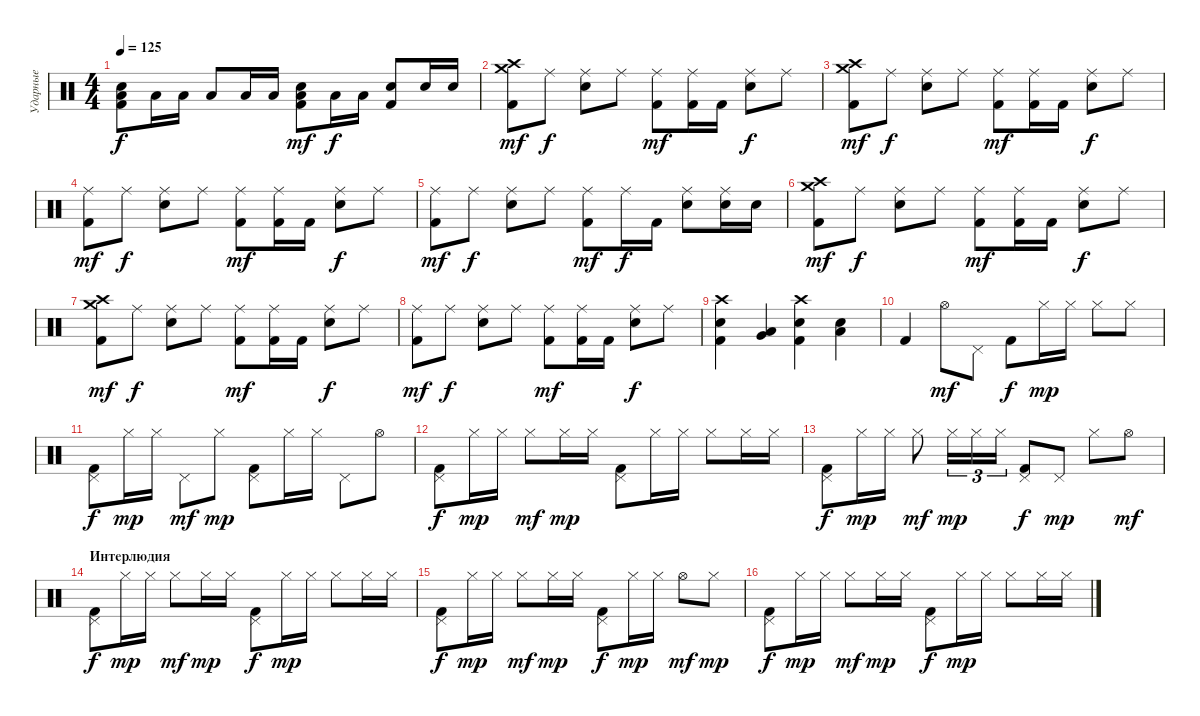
\track ("Ударные" "Ударные") {instrument percussion}
\staff {score}
\articulation defaults
\ts (4 4)
\tempo 125
\clef neutral
\ks c
("Snare (hit) 2" "Kick (hit) 2" "Low Floor Tom (hit)").8{dy f} "Low Floor Tom (hit)".16 "Low Floor Tom (hit)".16 "Low Floor Tom (hit)".8 "Low Floor Tom (hit)".16 "Low Floor Tom (hit)".16 ("Snare (hit) 2" "Kick (hit) 2" "Low Floor Tom (hit)").8{dy mf} "Low Floor Tom (hit)".16{dy f} "Low Floor Tom (hit)".16 ("Snare (hit) 2" "Kick (hit) 2").8 "Snare (hit) 2".16 "Snare (hit) 2".16 |
("Crash high (hit)" "Crash medium (hit)" "Kick (hit) 2").8{dy mf} "Ride (middle)".8{dy f} ("Ride (middle)" "Snare (hit) 2").8 "Ride (middle)".8 ("Ride (middle)" "Kick (hit) 2").8{dy mf} ("Ride (middle)" "Kick (hit) 2").16 "Kick (hit) 2".16 ("Ride (middle)" "Snare (hit) 2").8{dy f} "Ride (middle)".8 |
("Crash high (hit)" "Crash medium (hit)" "Kick (hit) 2").8{dy mf} "Ride (middle)".8{dy f} ("Ride (middle)" "Snare (hit) 2").8 "Ride (middle)".8 ("Ride (middle)" "Kick (hit) 2").8{dy mf} ("Ride (middle)" "Kick (hit) 2").16 "Kick (hit) 2".16 ("Ride (middle)" "Snare (hit) 2").8{dy f} "Ride (middle)".8 |
("Ride (middle)" "Kick (hit) 2").8{dy mf} "Ride (middle)".8{dy f} ("Ride (middle)" "Snare (hit) 2").8 "Ride (middle)".8 ("Ride (middle)" "Kick (hit) 2").8{dy mf} ("Ride (middle)" "Kick (hit) 2").16 "Kick (hit) 2".16 ("Ride (middle)" "Snare (hit) 2").8{dy f} "Ride (middle)".8 |
("Ride (middle)" "Kick (hit) 2").8{dy mf} "Ride (middle)".8{dy f} ("Ride (middle)" "Snare (hit) 2").8 "Ride (middle)".8 ("Ride (middle)" "Kick (hit) 2").8{dy mf} "Ride (middle)".16{dy f} "Kick (hit) 2".16 ("Ride (middle)" "Snare (hit) 2").8 ("Ride (middle)" "Snare (hit) 2").16 "Snare (hit) 2".16 |
("Crash high (hit)" "Crash medium (hit)" "Kick (hit) 2").8{dy mf} "Ride (middle)".8{dy f} ("Ride (middle)" "Snare (hit) 2").8 "Ride (middle)".8 ("Ride (middle)" "Kick (hit) 2").8{dy mf} ("Ride (middle)" "Kick (hit) 2").16 "Kick (hit) 2".16 ("Ride (middle)" "Snare (hit) 2").8{dy f} "Ride (middle)".8 |
("Crash high (hit)" "Crash medium (hit)" "Kick (hit) 2").8{dy mf} "Ride (middle)".8{dy f} ("Ride (middle)" "Snare (hit) 2").8 "Ride (middle)".8 ("Ride (middle)" "Kick (hit) 2").8{dy mf} ("Ride (middle)" "Kick (hit) 2").16 "Kick (hit) 2".16 ("Ride (middle)" "Snare (hit) 2").8{dy f} "Ride (middle)".8 |
("Ride (middle)" "Kick (hit) 2").8{dy mf} "Ride (middle)".8{dy f} ("Ride (middle)" "Snare (hit) 2").8 "Ride (middle)".8 ("Ride (middle)" "Kick (hit) 2").8{dy mf} ("Ride (middle)" "Kick (hit) 2").16 "Kick (hit) 2".16 ("Ride (middle)" "Snare (hit) 2").8{dy f} "Ride (middle)".8 |
("Crash high (hit)" "Snare (hit) 2" "Kick (hit) 2").4 ("Low Floor Tom (hit)" "Very Low Tom (hit)").4 ("Crash high (hit)" "Snare (hit) 2" "Kick (hit) 2").4 ("Snare (hit) 2" "Low Floor Tom (hit)").4 |
"Kick (hit) 2".4 "Hi-Hat (open)".8{dy mf} "Pedal Hi-Hat (hit)".8 "Kick (hit) 2".8{dy f} "Hi-Hat (closed)".16{dy mp} "Hi-Hat (closed)".16 "Hi-Hat (closed)".8 "Hi-Hat (closed)".8 |
("Pedal Hi-Hat (hit)" "Kick (hit) 2").8{dy f} "Hi-Hat (closed)".16{dy mp} "Hi-Hat (closed)".16 "Pedal Hi-Hat (hit)".8{dy mf} "Hi-Hat (closed)".8{dy mp} ("Pedal Hi-Hat (hit)" "Kick (hit) 2").8 "Hi-Hat (closed)".16 "Hi-Hat (closed)".16 "Pedal Hi-Hat (hit)".8 "Hi-Hat (open)".8 |
("Pedal Hi-Hat (hit)" "Kick (hit) 2").8{dy f} "Hi-Hat (closed)".16{dy mp} "Hi-Hat (closed)".16 "Hi-Hat (closed)".8{dy mf} "Hi-Hat (closed)".16{dy mp} "Hi-Hat (closed)".16 ("Pedal Hi-Hat (hit)" "Kick (hit) 2").8 "Hi-Hat (closed)".16 "Hi-Hat (closed)".16 "Hi-Hat (closed)".8 "Hi-Hat (closed)".16 "Hi-Hat (closed)".16 |
("Pedal Hi-Hat (hit)" "Kick (hit) 2").8{dy f} "Hi-Hat (closed)".16{dy mp} "Hi-Hat (closed)".16 "Hi-Hat (closed)".8{dy mf} "Hi-Hat (closed)".16{tu (3 2) dy mp} "Hi-Hat (closed)".16{tu (3 2)} "Hi-Hat (closed)".16{tu (3 2)} ("Pedal Hi-Hat (hit)" "Kick (hit) 2").8{dy f} "Pedal Hi-Hat (hit)".8{dy mp} "Hi-Hat (closed)".8 "Hi-Hat (open)".8{dy mf} |
\section ("" "Интерлюдия")
("Pedal Hi-Hat (hit)" "Kick (hit) 2").8{dy f} "Hi-Hat (closed)".16{dy mp} "Hi-Hat (closed)".16 "Hi-Hat (closed)".8{dy mf} "Hi-Hat (closed)".16{dy mp} "Hi-Hat (closed)".16 ("Pedal Hi-Hat (hit)" "Kick (hit) 2").8{dy f} "Hi-Hat (closed)".16{dy mp} "Hi-Hat (closed)".16 "Hi-Hat (closed)".8 "Hi-Hat (closed)".16 "Hi-Hat (closed)".16 |
("Pedal Hi-Hat (hit)" "Kick (hit) 2").8{dy f} "Hi-Hat (closed)".16{dy mp} "Hi-Hat (closed)".16 "Hi-Hat (closed)".8{dy mf} "Hi-Hat (closed)".16{dy mp} "Hi-Hat (closed)".16 ("Pedal Hi-Hat (hit)" "Kick (hit) 2").8{dy f} "Hi-Hat (closed)".16{dy mp} "Hi-Hat (closed)".16 "Hi-Hat (open)".8{dy mf} "Hi-Hat (closed)".8{dy mp} |
("Pedal Hi-Hat (hit)" "Kick (hit) 2").8{dy f} "Hi-Hat (closed)".16{dy mp} "Hi-Hat (closed)".16 "Hi-Hat (closed)".8{dy mf} "Hi-Hat (closed)".16{dy mp} "Hi-Hat (closed)".16 ("Pedal Hi-Hat (hit)" "Kick (hit) 2").8{dy f} "Hi-Hat (closed)".16{dy mp} "Hi-Hat (closed)".16 "Hi-Hat (closed)".8 "Hi-Hat (closed)".16 "Hi-Hat (closed)".16
